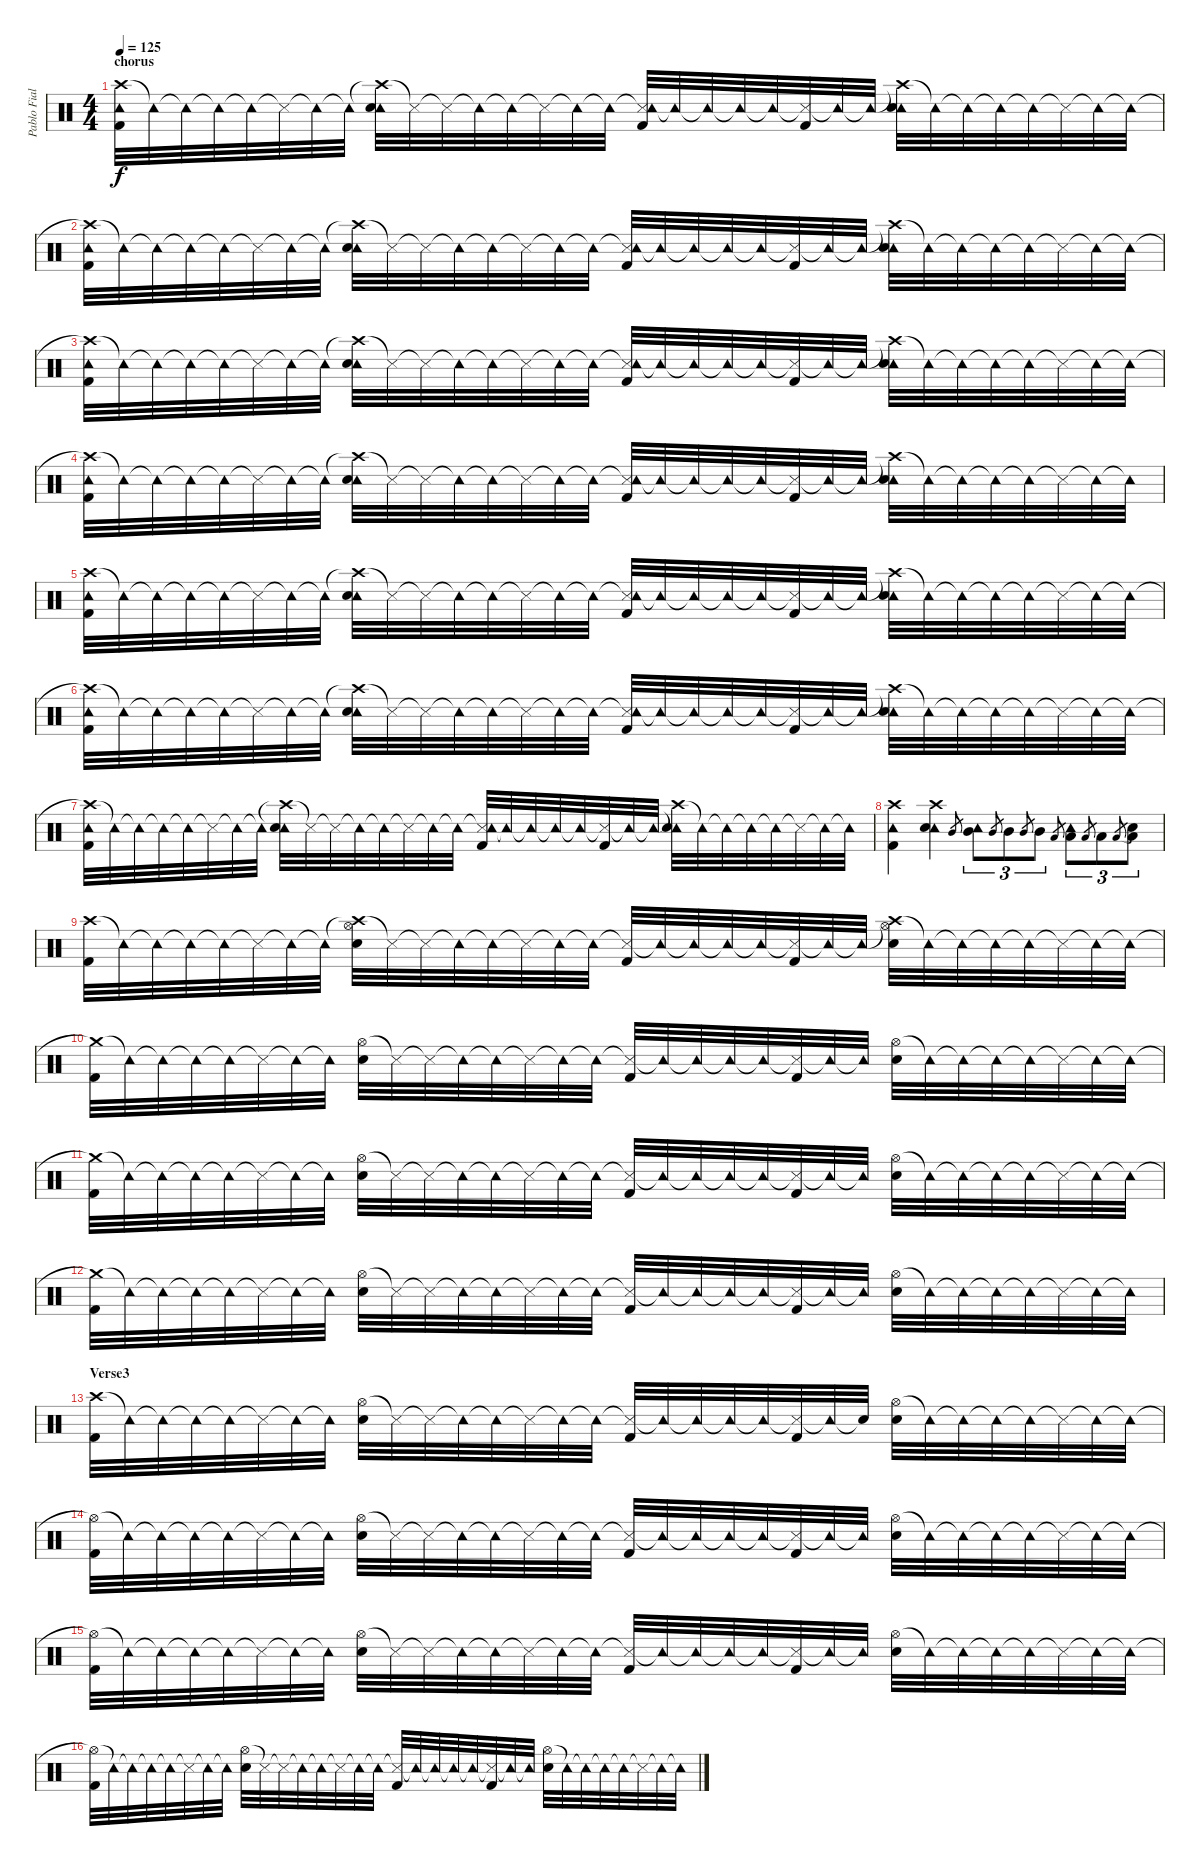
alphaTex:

\track ("Pablo Fiallo" "Pablo Fial") {instrument percussion}
\staff {score}
\articulation defaults
\ts (4 4)
\section ("" "chorus")
\tempo 125
\clef neutral
\ks c
("Crash high (hit)" "Tambourine (hit)" "Kick (hit) 2").32{dy f} "Tambourine (hit)"{t}.32 "Tambourine (hit)"{t}.32 "Tambourine (hit)"{t}.32 "Tambourine (hit)"{t}.32 "Snare (side stick) 3"{t}.32 "Tambourine (hit)"{t}.32 "Tambourine (hit)"{t}.32 ("Crash high (hit)"{t} "Tambourine (hit)" "Snare (hit) 2").32 "Snare (side stick) 3"{t}.32 "Snare (side stick) 3"{t}.32 "Tambourine (hit)"{t}.32 "Tambourine (hit)"{t}.32 "Snare (side stick) 3"{t}.32 "Tambourine (hit)"{t}.32 "Tambourine (hit)"{t}.32 ("Snare (side stick) 3"{t} "Tambourine (hit)" "Kick (hit) 2").32 "Tambourine (hit)"{t}.32 "Tambourine (hit)"{t}.32 "Tambourine (hit)"{t}.32 "Tambourine (hit)"{t}.32 ("Snare (side stick) 3"{t} "Kick (hit) 2").32 "Tambourine (hit)"{t}.32 "Tambourine (hit)"{t}.32 ("Crash high (hit)"{t} "Tambourine (hit)" "Snare (hit) 2").32 "Tambourine (hit)"{t}.32 "Tambourine (hit)"{t}.32 "Tambourine (hit)"{t}.32 "Tambourine (hit)"{t}.32 "Snare (side stick) 3"{t}.32 "Tambourine (hit)"{t}.32 "Tambourine (hit)"{t}.32 |
("Crash high (hit)"{t} "Tambourine (hit)" "Kick (hit) 2").32 "Tambourine (hit)"{t}.32 "Tambourine (hit)"{t}.32 "Tambourine (hit)"{t}.32 "Tambourine (hit)"{t}.32 "Snare (side stick) 3"{t}.32 "Tambourine (hit)"{t}.32 "Tambourine (hit)"{t}.32 ("Crash high (hit)"{t} "Tambourine (hit)" "Snare (hit) 2").32 "Snare (side stick) 3"{t}.32 "Snare (side stick) 3"{t}.32 "Tambourine (hit)"{t}.32 "Tambourine (hit)"{t}.32 "Snare (side stick) 3"{t}.32 "Tambourine (hit)"{t}.32 "Tambourine (hit)"{t}.32 ("Snare (side stick) 3"{t} "Tambourine (hit)" "Kick (hit) 2").32 "Tambourine (hit)"{t}.32 "Tambourine (hit)"{t}.32 "Tambourine (hit)"{t}.32 "Tambourine (hit)"{t}.32 ("Snare (side stick) 3"{t} "Kick (hit) 2").32 "Tambourine (hit)"{t}.32 "Tambourine (hit)"{t}.32 ("Crash high (hit)"{t} "Tambourine (hit)" "Snare (hit) 2").32 "Tambourine (hit)"{t}.32 "Tambourine (hit)"{t}.32 "Tambourine (hit)"{t}.32 "Tambourine (hit)"{t}.32 "Snare (side stick) 3"{t}.32 "Tambourine (hit)"{t}.32 "Tambourine (hit)"{t}.32 |
("Crash high (hit)"{t} "Tambourine (hit)" "Kick (hit) 2").32 "Tambourine (hit)"{t}.32 "Tambourine (hit)"{t}.32 "Tambourine (hit)"{t}.32 "Tambourine (hit)"{t}.32 "Snare (side stick) 3"{t}.32 "Tambourine (hit)"{t}.32 "Tambourine (hit)"{t}.32 ("Crash high (hit)"{t} "Tambourine (hit)" "Snare (hit) 2").32 "Snare (side stick) 3"{t}.32 "Snare (side stick) 3"{t}.32 "Tambourine (hit)"{t}.32 "Tambourine (hit)"{t}.32 "Snare (side stick) 3"{t}.32 "Tambourine (hit)"{t}.32 "Tambourine (hit)"{t}.32 ("Snare (side stick) 3"{t} "Tambourine (hit)" "Kick (hit) 2").32 "Tambourine (hit)"{t}.32 "Tambourine (hit)"{t}.32 "Tambourine (hit)"{t}.32 "Tambourine (hit)"{t}.32 ("Snare (side stick) 3"{t} "Kick (hit) 2").32 "Tambourine (hit)"{t}.32 "Tambourine (hit)"{t}.32 ("Crash high (hit)"{t} "Tambourine (hit)" "Snare (hit) 2").32 "Tambourine (hit)"{t}.32 "Tambourine (hit)"{t}.32 "Tambourine (hit)"{t}.32 "Tambourine (hit)"{t}.32 "Snare (side stick) 3"{t}.32 "Tambourine (hit)"{t}.32 "Tambourine (hit)"{t}.32 |
("Crash high (hit)"{t} "Tambourine (hit)" "Kick (hit) 2").32 "Tambourine (hit)"{t}.32 "Tambourine (hit)"{t}.32 "Tambourine (hit)"{t}.32 "Tambourine (hit)"{t}.32 "Snare (side stick) 3"{t}.32 "Tambourine (hit)"{t}.32 "Tambourine (hit)"{t}.32 ("Crash high (hit)"{t} "Tambourine (hit)" "Snare (hit) 2").32 "Snare (side stick) 3"{t}.32 "Snare (side stick) 3"{t}.32 "Tambourine (hit)"{t}.32 "Tambourine (hit)"{t}.32 "Snare (side stick) 3"{t}.32 "Tambourine (hit)"{t}.32 "Tambourine (hit)"{t}.32 ("Snare (side stick) 3"{t} "Tambourine (hit)" "Kick (hit) 2").32 "Tambourine (hit)"{t}.32 "Tambourine (hit)"{t}.32 "Tambourine (hit)"{t}.32 "Tambourine (hit)"{t}.32 ("Snare (side stick) 3"{t} "Kick (hit) 2").32 "Tambourine (hit)"{t}.32 "Tambourine (hit)"{t}.32 ("Crash high (hit)"{t} "Tambourine (hit)" "Snare (hit) 2").32 "Tambourine (hit)"{t}.32 "Tambourine (hit)"{t}.32 "Tambourine (hit)"{t}.32 "Tambourine (hit)"{t}.32 "Snare (side stick) 3"{t}.32 "Tambourine (hit)"{t}.32 "Tambourine (hit)"{t}.32 |
("Crash high (hit)" "Tambourine (hit)" "Kick (hit) 2").32 "Tambourine (hit)"{t}.32 "Tambourine (hit)"{t}.32 "Tambourine (hit)"{t}.32 "Tambourine (hit)"{t}.32 "Snare (side stick) 3"{t}.32 "Tambourine (hit)"{t}.32 "Tambourine (hit)"{t}.32 ("Crash high (hit)"{t} "Tambourine (hit)" "Snare (hit) 2").32 "Snare (side stick) 3"{t}.32 "Snare (side stick) 3"{t}.32 "Tambourine (hit)"{t}.32 "Tambourine (hit)"{t}.32 "Snare (side stick) 3"{t}.32 "Tambourine (hit)"{t}.32 "Tambourine (hit)"{t}.32 ("Snare (side stick) 3"{t} "Tambourine (hit)" "Kick (hit) 2").32 "Tambourine (hit)"{t}.32 "Tambourine (hit)"{t}.32 "Tambourine (hit)"{t}.32 "Tambourine (hit)"{t}.32 ("Snare (side stick) 3"{t} "Kick (hit) 2").32 "Tambourine (hit)"{t}.32 "Tambourine (hit)"{t}.32 ("Crash high (hit)"{t} "Tambourine (hit)" "Snare (hit) 2").32 "Tambourine (hit)"{t}.32 "Tambourine (hit)"{t}.32 "Tambourine (hit)"{t}.32 "Tambourine (hit)"{t}.32 "Snare (side stick) 3"{t}.32 "Tambourine (hit)"{t}.32 "Tambourine (hit)"{t}.32 |
("Crash high (hit)"{t} "Tambourine (hit)" "Kick (hit) 2").32 "Tambourine (hit)"{t}.32 "Tambourine (hit)"{t}.32 "Tambourine (hit)"{t}.32 "Tambourine (hit)"{t}.32 "Snare (side stick) 3"{t}.32 "Tambourine (hit)"{t}.32 "Tambourine (hit)"{t}.32 ("Crash high (hit)"{t} "Tambourine (hit)" "Snare (hit) 2").32 "Snare (side stick) 3"{t}.32 "Snare (side stick) 3"{t}.32 "Tambourine (hit)"{t}.32 "Tambourine (hit)"{t}.32 "Snare (side stick) 3"{t}.32 "Tambourine (hit)"{t}.32 "Tambourine (hit)"{t}.32 ("Snare (side stick) 3"{t} "Tambourine (hit)" "Kick (hit) 2").32 "Tambourine (hit)"{t}.32 "Tambourine (hit)"{t}.32 "Tambourine (hit)"{t}.32 "Tambourine (hit)"{t}.32 ("Snare (side stick) 3"{t} "Kick (hit) 2").32 "Tambourine (hit)"{t}.32 "Tambourine (hit)"{t}.32 ("Crash high (hit)"{t} "Tambourine (hit)" "Snare (hit) 2").32 "Tambourine (hit)"{t}.32 "Tambourine (hit)"{t}.32 "Tambourine (hit)"{t}.32 "Tambourine (hit)"{t}.32 "Snare (side stick) 3"{t}.32 "Tambourine (hit)"{t}.32 "Tambourine (hit)"{t}.32 |
("Crash high (hit)"{t} "Tambourine (hit)" "Kick (hit) 2").32 "Tambourine (hit)"{t}.32 "Tambourine (hit)"{t}.32 "Tambourine (hit)"{t}.32 "Tambourine (hit)"{t}.32 "Snare (side stick) 3"{t}.32 "Tambourine (hit)"{t}.32 "Tambourine (hit)"{t}.32 ("Crash high (hit)"{t} "Tambourine (hit)" "Snare (hit) 2").32 "Snare (side stick) 3"{t}.32 "Snare (side stick) 3"{t}.32 "Tambourine (hit)"{t}.32 "Tambourine (hit)"{t}.32 "Snare (side stick) 3"{t}.32 "Tambourine (hit)"{t}.32 "Tambourine (hit)"{t}.32 ("Snare (side stick) 3"{t} "Tambourine (hit)" "Kick (hit) 2").32 "Tambourine (hit)"{t}.32 "Tambourine (hit)"{t}.32 "Tambourine (hit)"{t}.32 "Tambourine (hit)"{t}.32 ("Snare (side stick) 3"{t} "Kick (hit) 2").32 "Tambourine (hit)"{t}.32 "Tambourine (hit)"{t}.32 ("Crash high (hit)"{t} "Tambourine (hit)" "Snare (hit) 2").32 "Tambourine (hit)"{t}.32 "Tambourine (hit)"{t}.32 "Tambourine (hit)"{t}.32 "Tambourine (hit)"{t}.32 "Snare (side stick) 3"{t}.32 "Tambourine (hit)"{t}.32 "Tambourine (hit)"{t}.32 |
("Crash high (hit)" "Tambourine (hit)" "Kick (hit) 2").4 ("Crash high (hit)" "Tambourine (hit)" "Snare (hit) 2").4 "Mid Tom (hit)".8{gr} ("Tambourine (hit)" "Mid Tom (hit)").8{tu (3 2)} "Mid Tom (hit)".8{gr} "Mid Tom (hit)".8{tu (3 2)} "Mid Tom (hit)".8{gr} "Mid Tom (hit)".8{tu (3 2)} "Low Tom (hit)".8{gr} ("Tambourine (hit)" "Low Tom (hit)").8{tu (3 2)} "Low Tom (hit)".8{gr} "Low Tom (hit)".8{tu (3 2)} "Low Tom (hit)".8{gr} ("Snare (hit)"{t} "Low Tom (hit)").8{tu (3 2)} |
("Crash high (hit)" "Kick (hit) 2").32 "Tambourine (hit)"{t}.32 "Tambourine (hit)"{t}.32 "Tambourine (hit)"{t}.32 "Tambourine (hit)"{t}.32 "Snare (side stick) 3"{t}.32 "Tambourine (hit)"{t}.32 "Tambourine (hit)"{t}.32 ("Crash high (hit)"{t} "Hi-Hat (open)" "Snare (hit) 2").32 "Snare (side stick) 3"{t}.32 "Snare (side stick) 3"{t}.32 "Tambourine (hit)"{t}.32 "Tambourine (hit)"{t}.32 "Snare (side stick) 3"{t}.32 "Tambourine (hit)"{t}.32 "Tambourine (hit)"{t}.32 ("Snare (side stick) 3"{t} "Kick (hit) 2").32 "Tambourine (hit)"{t}.32 "Tambourine (hit)"{t}.32 "Tambourine (hit)"{t}.32 "Tambourine (hit)"{t}.32 ("Snare (side stick) 3"{t} "Kick (hit) 2").32 "Tambourine (hit)"{t}.32 "Tambourine (hit)"{t}.32 ("Crash high (hit)"{t} "Hi-Hat (open)" "Snare (hit) 2").32 "Tambourine (hit)"{t}.32 "Tambourine (hit)"{t}.32 "Tambourine (hit)"{t}.32 "Tambourine (hit)"{t}.32 "Snare (side stick) 3"{t}.32 "Tambourine (hit)"{t}.32 "Tambourine (hit)"{t}.32 |
("Crash medium (hit)"{t} "Kick (hit) 2").32 "Tambourine (hit)"{t}.32 "Tambourine (hit)"{t}.32 "Tambourine (hit)"{t}.32 "Tambourine (hit)"{t}.32 "Snare (side stick) 3"{t}.32 "Tambourine (hit)"{t}.32 "Tambourine (hit)"{t}.32 ("Hi-Hat (open)" "Snare (hit) 2").32 "Snare (side stick) 3"{t}.32 "Snare (side stick) 3"{t}.32 "Tambourine (hit)"{t}.32 "Tambourine (hit)"{t}.32 "Snare (side stick) 3"{t}.32 "Tambourine (hit)"{t}.32 "Tambourine (hit)"{t}.32 ("Snare (side stick) 3"{t} "Kick (hit) 2").32 "Tambourine (hit)"{t}.32 "Tambourine (hit)"{t}.32 "Tambourine (hit)"{t}.32 "Tambourine (hit)"{t}.32 ("Snare (side stick) 3"{t} "Kick (hit) 2").32 "Tambourine (hit)"{t}.32 "Tambourine (hit)"{t}.32 ("Hi-Hat (open)" "Snare (hit) 2").32 "Tambourine (hit)"{t}.32 "Tambourine (hit)"{t}.32 "Tambourine (hit)"{t}.32 "Tambourine (hit)"{t}.32 "Snare (side stick) 3"{t}.32 "Tambourine (hit)"{t}.32 "Tambourine (hit)"{t}.32 |
("Crash medium (hit)"{t} "Kick (hit) 2").32 "Tambourine (hit)"{t}.32 "Tambourine (hit)"{t}.32 "Tambourine (hit)"{t}.32 "Tambourine (hit)"{t}.32 "Snare (side stick) 3"{t}.32 "Tambourine (hit)"{t}.32 "Tambourine (hit)"{t}.32 ("Hi-Hat (open)" "Snare (hit) 2").32 "Snare (side stick) 3"{t}.32 "Snare (side stick) 3"{t}.32 "Tambourine (hit)"{t}.32 "Tambourine (hit)"{t}.32 "Snare (side stick) 3"{t}.32 "Tambourine (hit)"{t}.32 "Tambourine (hit)"{t}.32 ("Snare (side stick) 3"{t} "Kick (hit) 2").32 "Tambourine (hit)"{t}.32 "Tambourine (hit)"{t}.32 "Tambourine (hit)"{t}.32 "Tambourine (hit)"{t}.32 ("Snare (side stick) 3"{t} "Kick (hit) 2").32 "Tambourine (hit)"{t}.32 "Tambourine (hit)"{t}.32 ("Hi-Hat (open)" "Snare (hit) 2").32 "Tambourine (hit)"{t}.32 "Tambourine (hit)"{t}.32 "Tambourine (hit)"{t}.32 "Tambourine (hit)"{t}.32 "Snare (side stick) 3"{t}.32 "Tambourine (hit)"{t}.32 "Tambourine (hit)"{t}.32 |
("Crash medium (hit)"{t} "Kick (hit) 2").32 "Tambourine (hit)"{t}.32 "Tambourine (hit)"{t}.32 "Tambourine (hit)"{t}.32 "Tambourine (hit)"{t}.32 "Snare (side stick) 3"{t}.32 "Tambourine (hit)"{t}.32 "Tambourine (hit)"{t}.32 ("Hi-Hat (open)" "Snare (hit) 2").32 "Snare (side stick) 3"{t}.32 "Snare (side stick) 3"{t}.32 "Tambourine (hit)"{t}.32 "Tambourine (hit)"{t}.32 "Snare (side stick) 3"{t}.32 "Tambourine (hit)"{t}.32 "Tambourine (hit)"{t}.32 ("Snare (side stick) 3"{t} "Kick (hit) 2").32 "Tambourine (hit)"{t}.32 "Tambourine (hit)"{t}.32 "Tambourine (hit)"{t}.32 "Tambourine (hit)"{t}.32 ("Snare (side stick) 3"{t} "Kick (hit) 2").32 "Tambourine (hit)"{t}.32 "Tambourine (hit)"{t}.32 ("Hi-Hat (open)" "Snare (hit) 2").32 "Tambourine (hit)"{t}.32 "Tambourine (hit)"{t}.32 "Tambourine (hit)"{t}.32 "Tambourine (hit)"{t}.32 "Snare (side stick) 3"{t}.32 "Tambourine (hit)"{t}.32 "Tambourine (hit)"{t}.32 |
\section ("" "Verse3")
("Crash high (hit)" "Kick (hit) 2").32 "Tambourine (hit)"{t}.32 "Tambourine (hit)"{t}.32 "Tambourine (hit)"{t}.32 "Tambourine (hit)"{t}.32 "Snare (side stick) 3"{t}.32 "Tambourine (hit)"{t}.32 "Tambourine (hit)"{t}.32 ("Hi-Hat (open)" "Snare (hit) 2").32 "Snare (side stick) 3"{t}.32 "Snare (side stick) 3"{t}.32 "Tambourine (hit)"{t}.32 "Tambourine (hit)"{t}.32 "Snare (side stick) 3"{t}.32 "Tambourine (hit)"{t}.32 "Tambourine (hit)"{t}.32 ("Snare (side stick) 3"{t} "Kick (hit) 2").32 "Tambourine (hit)"{t}.32 "Tambourine (hit)"{t}.32 "Tambourine (hit)"{t}.32 "Tambourine (hit)"{t}.32 ("Snare (side stick) 3"{t} "Kick (hit) 2").32 "Tambourine (hit)"{t}.32 "Snare (hit)"{t}.32 ("Hi-Hat (open)" "Snare (hit) 2").32 "Tambourine (hit)"{t}.32 "Tambourine (hit)"{t}.32 "Tambourine (hit)"{t}.32 "Tambourine (hit)"{t}.32 "Snare (side stick) 3"{t}.32 "Tambourine (hit)"{t}.32 "Tambourine (hit)"{t}.32 |
("Hi-Hat (open)"{t} "Kick (hit) 2").32 "Tambourine (hit)"{t}.32 "Tambourine (hit)"{t}.32 "Tambourine (hit)"{t}.32 "Tambourine (hit)"{t}.32 "Snare (side stick) 3"{t}.32 "Tambourine (hit)"{t}.32 "Tambourine (hit)"{t}.32 ("Hi-Hat (open)" "Snare (hit) 2").32 "Snare (side stick) 3"{t}.32 "Snare (side stick) 3"{t}.32 "Tambourine (hit)"{t}.32 "Tambourine (hit)"{t}.32 "Snare (side stick) 3"{t}.32 "Tambourine (hit)"{t}.32 "Tambourine (hit)"{t}.32 ("Snare (side stick) 3"{t} "Kick (hit) 2").32 "Tambourine (hit)"{t}.32 "Tambourine (hit)"{t}.32 "Tambourine (hit)"{t}.32 "Tambourine (hit)"{t}.32 ("Snare (side stick) 3"{t} "Kick (hit) 2").32 "Tambourine (hit)"{t}.32 "Tambourine (hit)"{t}.32 ("Hi-Hat (open)" "Snare (hit) 2").32 "Tambourine (hit)"{t}.32 "Tambourine (hit)"{t}.32 "Tambourine (hit)"{t}.32 "Tambourine (hit)"{t}.32 "Snare (side stick) 3"{t}.32 "Tambourine (hit)"{t}.32 "Tambourine (hit)"{t}.32 |
("Hi-Hat (open)"{t} "Kick (hit) 2").32 "Tambourine (hit)"{t}.32 "Tambourine (hit)"{t}.32 "Tambourine (hit)"{t}.32 "Tambourine (hit)"{t}.32 "Snare (side stick) 3"{t}.32 "Tambourine (hit)"{t}.32 "Tambourine (hit)"{t}.32 ("Hi-Hat (open)" "Snare (hit) 2").32 "Snare (side stick) 3"{t}.32 "Snare (side stick) 3"{t}.32 "Tambourine (hit)"{t}.32 "Tambourine (hit)"{t}.32 "Snare (side stick) 3"{t}.32 "Tambourine (hit)"{t}.32 "Tambourine (hit)"{t}.32 ("Snare (side stick) 3"{t} "Kick (hit) 2").32 "Tambourine (hit)"{t}.32 "Tambourine (hit)"{t}.32 "Tambourine (hit)"{t}.32 "Tambourine (hit)"{t}.32 ("Snare (side stick) 3"{t} "Kick (hit) 2").32 "Tambourine (hit)"{t}.32 "Tambourine (hit)"{t}.32 ("Hi-Hat (open)" "Snare (hit) 2").32 "Tambourine (hit)"{t}.32 "Tambourine (hit)"{t}.32 "Tambourine (hit)"{t}.32 "Tambourine (hit)"{t}.32 "Snare (side stick) 3"{t}.32 "Tambourine (hit)"{t}.32 "Tambourine (hit)"{t}.32 |
("Hi-Hat (open)"{t} "Kick (hit) 2").32 "Tambourine (hit)"{t}.32 "Tambourine (hit)"{t}.32 "Tambourine (hit)"{t}.32 "Tambourine (hit)"{t}.32 "Snare (side stick) 3"{t}.32 "Tambourine (hit)"{t}.32 "Tambourine (hit)"{t}.32 ("Hi-Hat (open)" "Snare (hit) 2").32 "Snare (side stick) 3"{t}.32 "Snare (side stick) 3"{t}.32 "Tambourine (hit)"{t}.32 "Tambourine (hit)"{t}.32 "Snare (side stick) 3"{t}.32 "Tambourine (hit)"{t}.32 "Tambourine (hit)"{t}.32 ("Snare (side stick) 3"{t} "Kick (hit) 2").32 "Tambourine (hit)"{t}.32 "Tambourine (hit)"{t}.32 "Tambourine (hit)"{t}.32 "Tambourine (hit)"{t}.32 ("Snare (side stick) 3"{t} "Kick (hit) 2").32 "Tambourine (hit)"{t}.32 "Tambourine (hit)"{t}.32 ("Hi-Hat (open)" "Snare (hit) 2").32 "Tambourine (hit)"{t}.32 "Tambourine (hit)"{t}.32 "Tambourine (hit)"{t}.32 "Tambourine (hit)"{t}.32 "Snare (side stick) 3"{t}.32 "Tambourine (hit)"{t}.32 "Tambourine (hit)"{t}.32
